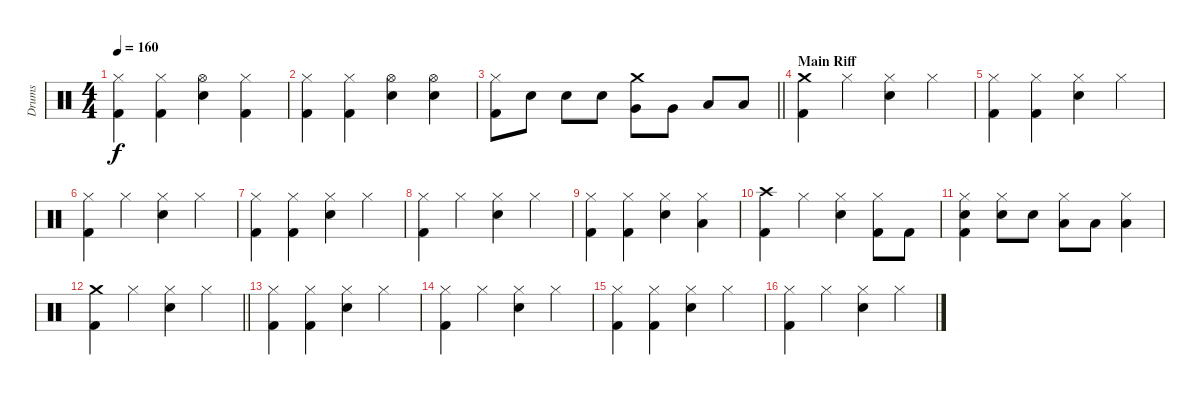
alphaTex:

\track ("Drums" "Drums") {instrument percussion}
\staff {score}
\articulation defaults
\ts (4 4)
\tempo 160
\clef neutral
\ks c
("Hi-Hat (closed)" "Kick (hit) 2").4{dy f} ("Hi-Hat (closed)" "Kick (hit) 2").4 ("Hi-Hat (open)" "Snare (hit) 2").4 ("Hi-Hat (closed)" "Kick (hit) 2").4 |
("Hi-Hat (closed)" "Kick (hit) 2").4 ("Hi-Hat (closed)" "Kick (hit) 2").4 ("Hi-Hat (open)" "Snare (hit) 2").4 ("Hi-Hat (open)" "Snare (hit) 2").4 |
\barLineRight lightlight
("Hi-Hat (closed)" "Kick (hit) 2").8 "Snare (hit) 2".8 "Snare (hit) 2".8 "Snare (hit) 2".8 ("Crash medium (hit)" "Very Low Tom (hit)").8 "Very Low Tom (hit)".8 "Low Tom (hit)".8 "Low Tom (hit)".8 |
\section ("" "Main Riff")
("Crash medium (hit)" "Kick (hit) 2").4 "Hi-Hat (closed)".4 ("Hi-Hat (closed)" "Snare (hit) 2").4 "Hi-Hat (closed)".4 |
("Hi-Hat (closed)" "Kick (hit) 2").4 ("Hi-Hat (closed)" "Kick (hit) 2").4 ("Hi-Hat (closed)" "Snare (hit) 2").4 "Hi-Hat (closed)".4 |
("Hi-Hat (closed)" "Kick (hit) 2").4 "Hi-Hat (closed)".4 ("Hi-Hat (closed)" "Snare (hit) 2").4 "Hi-Hat (closed)".4 |
("Hi-Hat (closed)" "Kick (hit) 2").4 ("Hi-Hat (closed)" "Kick (hit) 2").4 ("Hi-Hat (closed)" "Snare (hit) 2").4 "Hi-Hat (closed)".4 |
("Hi-Hat (closed)" "Kick (hit) 2").4 "Hi-Hat (closed)".4 ("Hi-Hat (closed)" "Snare (hit) 2").4 "Hi-Hat (closed)".4 |
("Hi-Hat (closed)" "Kick (hit) 2").4 ("Hi-Hat (closed)" "Kick (hit) 2").4 ("Hi-Hat (closed)" "Snare (hit) 2").4 ("Hi-Hat (closed)" "Low Tom (hit)").4 |
("Crash high (hit)" "Kick (hit) 2").4 "Hi-Hat (closed)".4 ("Hi-Hat (closed)" "Snare (hit) 2").4 ("Hi-Hat (closed)" "Kick (hit) 2").8 "Kick (hit) 2".8 |
("Hi-Hat (closed)" "Snare (hit) 2" "Kick (hit) 2").4 ("Hi-Hat (closed)" "Snare (hit) 2").8 "Snare (hit) 2".8 ("Hi-Hat (closed)" "Low Tom (hit)").8 "Low Tom (hit)".8 ("Hi-Hat (closed)" "Low Tom (hit)").4 |
\barLineRight lightlight
("Crash medium (hit)" "Kick (hit) 2").4 "Hi-Hat (closed)".4 ("Hi-Hat (closed)" "Snare (hit) 2").4 "Hi-Hat (closed)".4 |
("Hi-Hat (closed)" "Kick (hit) 2").4 ("Hi-Hat (closed)" "Kick (hit) 2").4 ("Hi-Hat (closed)" "Snare (hit) 2").4 "Hi-Hat (closed)".4 |
("Hi-Hat (closed)" "Kick (hit) 2").4 "Hi-Hat (closed)".4 ("Hi-Hat (closed)" "Snare (hit) 2").4 "Hi-Hat (closed)".4 |
("Hi-Hat (closed)" "Kick (hit) 2").4 ("Hi-Hat (closed)" "Kick (hit) 2").4 ("Hi-Hat (closed)" "Snare (hit) 2").4 "Hi-Hat (closed)".4 |
("Hi-Hat (closed)" "Kick (hit) 2").4 "Hi-Hat (closed)".4 ("Hi-Hat (closed)" "Snare (hit) 2").4 "Hi-Hat (closed)".4
